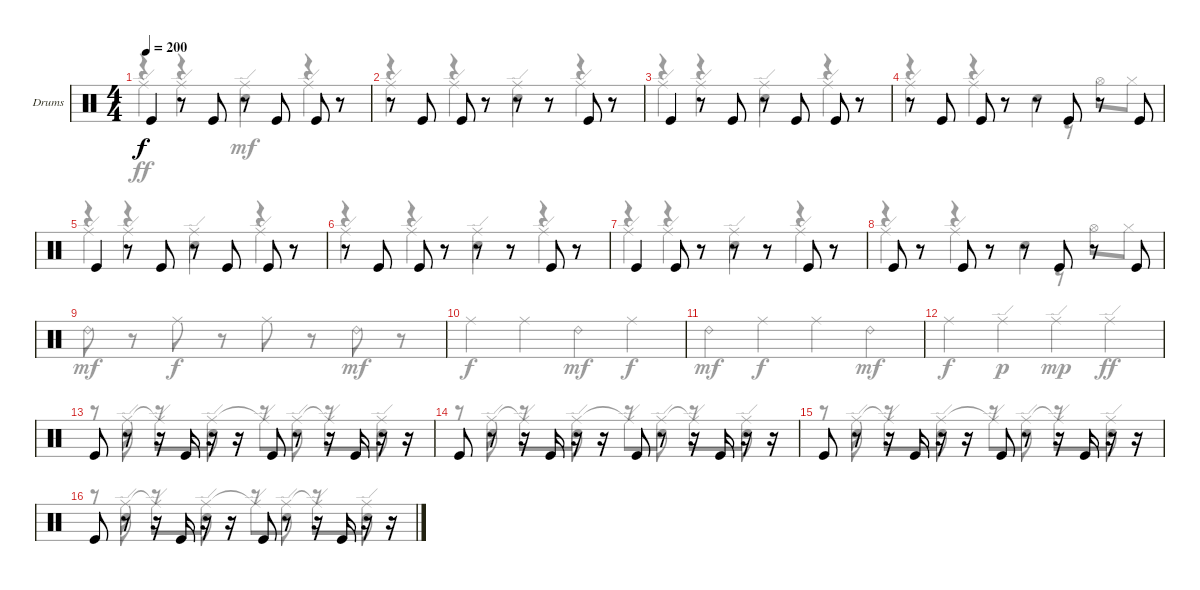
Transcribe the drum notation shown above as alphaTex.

\defaultSystemsLayout 4
\bracketExtendMode groupsimilarinstruments
\firstSystemTrackNameOrientation horizontal
\otherSystemsTrackNameOrientation horizontal
\track ("Drum" "Drums") {instrument percussion}
\staff {score}
\articulation defaults
\voice
\ts (4 4)
\tempo 200
\clef neutral
\ks c "Kick (hit)".4{dy f}
r.8 "Kick (hit)".8 r.8 "Kick (hit)".8 "Kick (hit)".8 r.8 |
r.8 "Kick (hit)".8 "Kick (hit)".8 r.8 r.8 r.8 "Kick (hit)".8 r.8 |
"Kick (hit)".4 r.8 "Kick (hit)".8 r.8 "Kick (hit)".8 "Kick (hit)".8 r.8 |
r.8 "Kick (hit)".8 "Kick (hit)".8 r.8 r.8 "Kick (hit)".8 r.8 "Kick (hit)".8 |
"Kick (hit)".4 r.8 "Kick (hit)".8 r.8 "Kick (hit)".8 "Kick (hit)".8 r.8 |
r.8 "Kick (hit)".8 "Kick (hit)".8 r.8 r.8 r.8 "Kick (hit)".8 r.8 |
"Kick (hit)".4 "Kick (hit)".8 r.8 r.8 r.8 "Kick (hit)".8 r.8 |
"Kick (hit)".8 r.8 "Kick (hit)".8 r.8 r.8 "Kick (hit)".8 r.8 "Kick (hit)".8 |
|
|
|
|
"Kick (hit)".8 r.8 r.16 "Kick (hit)".16 r.16 r.16 "Kick (hit)".8 r.8 r.16 "Kick (hit)".16 r.16 r.16 |
"Kick (hit)".8 r.8 r.16 "Kick (hit)".16 r.16 r.16 "Kick (hit)".8 r.8 r.16 "Kick (hit)".16 r.16 r.16 |
"Kick (hit)".8 r.8 r.16 "Kick (hit)".16 r.16 r.16 "Kick (hit)".8 r.8 r.16 "Kick (hit)".16 r.16 r.16 |
"Kick (hit)".8 r.8 r.16 "Kick (hit)".16 r.16 r.16 "Kick (hit)".8 r.8 r.16 "Kick (hit)".16 r.16 r.16
\voice
\clef neutral
\ottava regular
\simile none
\ks c
r.4{dy mf} r.4 "Snare (hit) 2".4 r.4 |
r.4 r.4 "Snare (hit) 2".4 r.4 |
r.4 r.4 "Snare (hit) 2".4 r.4 |
r.4 r.4 "Snare (hit) 2".4 |
r.4 r.4 "Snare (hit) 2".4 r.4 |
r.4 r.4 "Snare (hit) 2".4 r.4 |
r.4 r.4 "Snare (hit) 2".4 r.4 |
r.4 r.4 "Snare (hit) 2".4 |
|
|
|
|
r.8 "Snare (hit) 2".8 r.8 "Snare (hit) 2".8 r.8 "Snare (hit) 2".8 r.8 "Snare (hit) 2".8 |
r.8 "Snare (hit) 2".8 r.8 "Snare (hit) 2".8 r.8 "Snare (hit) 2".8 r.8 "Snare (hit) 2".8 |
r.8 "Snare (hit) 2".8 r.8 "Snare (hit) 2".8 r.8 "Snare (hit) 2".8 r.8 "Snare (hit) 2".8 |
r.8 "Snare (hit) 2".8 r.8 "Snare (hit) 2".8 r.8 "Snare (hit) 2".8 r.8 "Snare (hit) 2".8
\voice
\clef neutral
\ottava regular
\simile none
\ks c "Ride (edge)".4{dy ff} "Ride (edge)".4 "Ride (edge)".4 "Ride (edge)".4
|
"Ride (edge)".4 "Ride (edge)".4 "Ride (edge)".4 "Ride (edge)".4 |
"Ride (edge)".4 "Ride (edge)".4 "Ride (edge)".4 "Ride (edge)".4 |
"Ride (edge)".4 "Ride (edge)".4 r.8 r.8 "Hi-Hat (open)".8 "Hi-Hat (closed)".8 |
"Ride (edge)".4 "Ride (edge)".4 "Ride (edge)".4 "Ride (edge)".4 |
"Ride (edge)".4 "Ride (edge)".4 "Ride (edge)".4 "Ride (edge)".4 |
"Ride (edge)".4 "Ride (edge)".4 "Ride (edge)".4 "Ride (edge)".4 |
"Ride (edge)".4 "Ride (edge)".4 r.8 r.8 "Hi-Hat (open)".8 "Hi-Hat (closed)".8 |
"Ride (bell) 2".8{dy mf} r.8 "Ride (middle)".8{dy f} r.8 "Ride (middle)".8 r.8 "Ride (bell) 2".8{dy mf} r.8 |
"Ride (middle)".4{dy f} "Ride (middle)".4 "Ride (bell) 2".4{dy mf} "Ride (middle)".4{dy f} |
"Ride (bell) 2".4{dy mf} "Ride (middle)".4{dy f} "Ride (middle)".4 "Ride (bell) 2".4{dy mf} |
"Ride (middle)".4{dy f} "Ride (edge)".4{dy p} "Ride (edge)".4{dy mp} "Ride (edge)".4{dy ff} |
r.8 "Ride (edge)".8 "Ride (edge)"{t}.8 "Ride (edge)".8 "Ride (edge)"{t}.8 "Ride (edge)".8 "Ride (edge)"{t}.8 "Ride (edge)".8 |
r.8 "Ride (edge)".8 "Ride (edge)"{t}.8 "Ride (edge)".8 "Ride (edge)"{t}.8 "Ride (edge)".8 "Ride (edge)"{t}.8 "Ride (edge)".8 |
r.8 "Ride (edge)".8 "Ride (edge)"{t}.8 "Ride (edge)".8 "Ride (edge)"{t}.8 "Ride (edge)".8 "Ride (edge)"{t}.8 "Ride (edge)".8 |
r.8 "Ride (edge)".8 "Ride (edge)"{t}.8 "Ride (edge)".8 "Ride (edge)"{t}.8 "Ride (edge)".8 "Ride (edge)"{t}.8 "Ride (edge)".8
